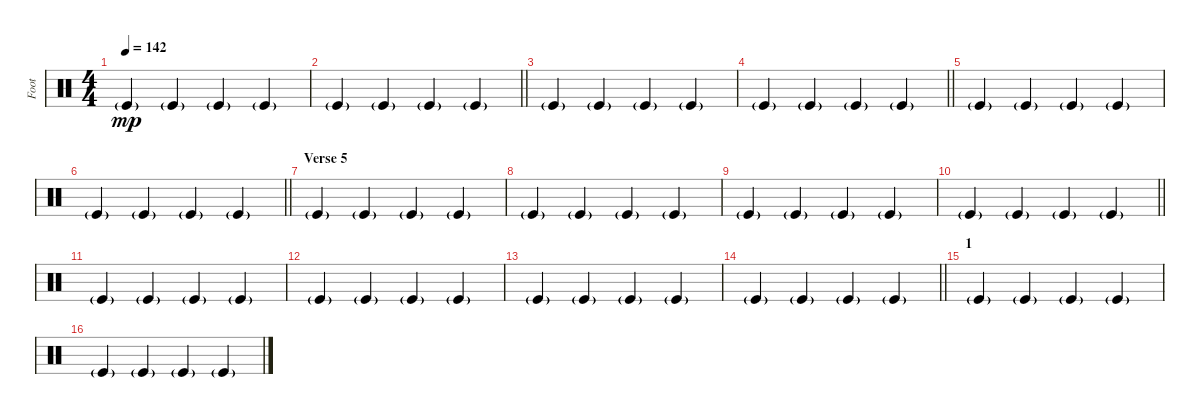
\track ("Foot" "Foot") {instrument percussion}
\staff {score}
\articulation defaults
\ts (4 4)
\tempo 142
\clef neutral
\ks c "Kick (hit)"{g}.4{dy mp} "Kick (hit)"{g}.4 "Kick (hit)"{g}.4 "Kick (hit)"{g}.4
|
\barLineRight lightlight "Kick (hit)"{g}.4 "Kick (hit)"{g}.4 "Kick (hit)"{g}.4 "Kick (hit)"{g}.4
|
"Kick (hit)"{g}.4 "Kick (hit)"{g}.4 "Kick (hit)"{g}.4 "Kick (hit)"{g}.4 |
\barLineRight lightlight "Kick (hit)"{g}.4 "Kick (hit)"{g}.4 "Kick (hit)"{g}.4 "Kick (hit)"{g}.4
|
"Kick (hit)"{g}.4 "Kick (hit)"{g}.4 "Kick (hit)"{g}.4 "Kick (hit)"{g}.4 |
\barLineRight lightlight "Kick (hit)"{g}.4 "Kick (hit)"{g}.4 "Kick (hit)"{g}.4 "Kick (hit)"{g}.4
|
\section ("" "Verse 5")
"Kick (hit)"{g}.4 "Kick (hit)"{g}.4 "Kick (hit)"{g}.4 "Kick (hit)"{g}.4 |
"Kick (hit)"{g}.4 "Kick (hit)"{g}.4 "Kick (hit)"{g}.4 "Kick (hit)"{g}.4 |
"Kick (hit)"{g}.4 "Kick (hit)"{g}.4 "Kick (hit)"{g}.4 "Kick (hit)"{g}.4 |
\barLineRight lightlight "Kick (hit)"{g}.4 "Kick (hit)"{g}.4 "Kick (hit)"{g}.4 "Kick (hit)"{g}.4
|
"Kick (hit)"{g}.4 "Kick (hit)"{g}.4 "Kick (hit)"{g}.4 "Kick (hit)"{g}.4 |
"Kick (hit)"{g}.4 "Kick (hit)"{g}.4 "Kick (hit)"{g}.4 "Kick (hit)"{g}.4 |
"Kick (hit)"{g}.4 "Kick (hit)"{g}.4 "Kick (hit)"{g}.4 "Kick (hit)"{g}.4 |
\barLineRight lightlight "Kick (hit)"{g}.4 "Kick (hit)"{g}.4 "Kick (hit)"{g}.4 "Kick (hit)"{g}.4
|
\section ("" "1")
"Kick (hit)"{g}.4 "Kick (hit)"{g}.4 "Kick (hit)"{g}.4 "Kick (hit)"{g}.4 |
"Kick (hit)"{g}.4 "Kick (hit)"{g}.4 "Kick (hit)"{g}.4 "Kick (hit)"{g}.4
